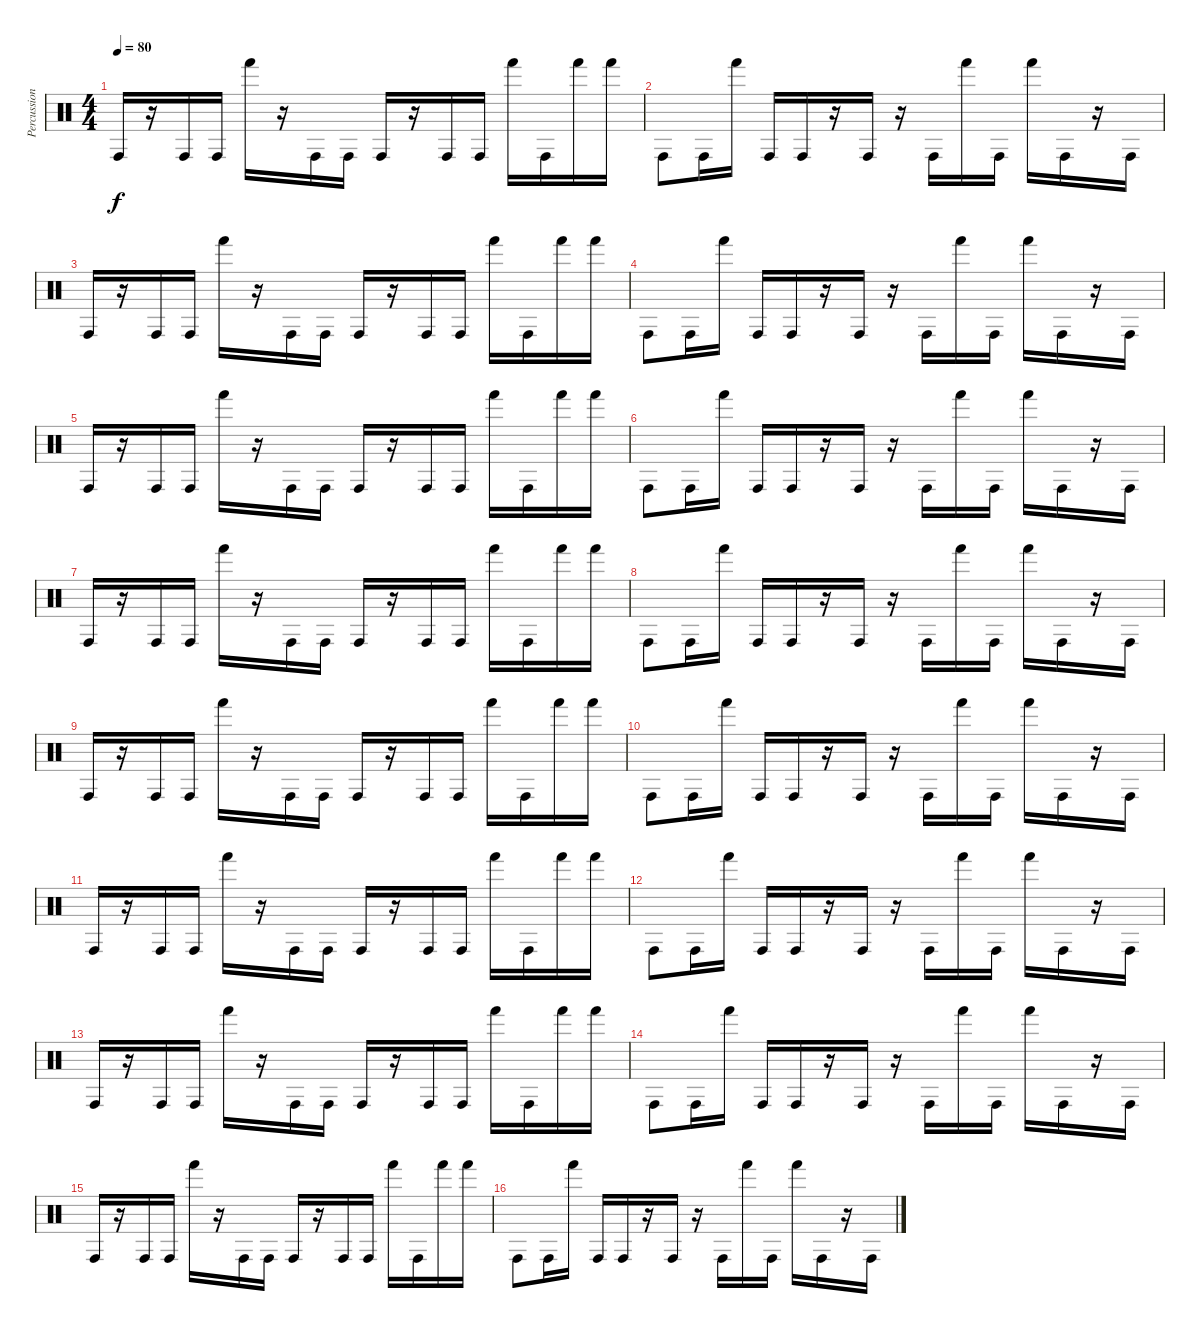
\track ("Percussion" "Percussion") {instrument percussion}
\staff {score}
\articulation defaults
\ts (4 4)
\tempo 80
\clef neutral
\ks c "Conga high (hit)".16{dy f}
r.16 "Conga high (hit)".16 "Conga high (hit)".16 "Hand (hit)".16 r.16 "Conga high (hit)".16 "Conga high (hit)".16 "Conga high (hit)".16 r.16 "Conga high (hit)".16 "Conga high (hit)".16 "Hand (hit)".16 "Conga high (hit)".16 "Hand (hit)".16 "Hand (hit)".16 |
"Conga high (hit)".8 "Conga high (hit)".16 "Hand (hit)".16 "Conga high (hit)".16 "Conga high (hit)".16 r.16 "Conga high (hit)".16 r.16 "Conga high (hit)".16 "Hand (hit)".16 "Conga high (hit)".16 "Hand (hit)".16 "Conga high (hit)".16 r.16 "Conga high (hit)".16 |
"Conga high (hit)".16 r.16 "Conga high (hit)".16 "Conga high (hit)".16 "Hand (hit)".16 r.16 "Conga high (hit)".16 "Conga high (hit)".16 "Conga high (hit)".16 r.16 "Conga high (hit)".16 "Conga high (hit)".16 "Hand (hit)".16 "Conga high (hit)".16 "Hand (hit)".16 "Hand (hit)".16 |
"Conga high (hit)".8 "Conga high (hit)".16 "Hand (hit)".16 "Conga high (hit)".16 "Conga high (hit)".16 r.16 "Conga high (hit)".16 r.16 "Conga high (hit)".16 "Hand (hit)".16 "Conga high (hit)".16 "Hand (hit)".16 "Conga high (hit)".16 r.16 "Conga high (hit)".16 |
"Conga high (hit)".16 r.16 "Conga high (hit)".16 "Conga high (hit)".16 "Hand (hit)".16 r.16 "Conga high (hit)".16 "Conga high (hit)".16 "Conga high (hit)".16 r.16 "Conga high (hit)".16 "Conga high (hit)".16 "Hand (hit)".16 "Conga high (hit)".16 "Hand (hit)".16 "Hand (hit)".16 |
"Conga high (hit)".8 "Conga high (hit)".16 "Hand (hit)".16 "Conga high (hit)".16 "Conga high (hit)".16 r.16 "Conga high (hit)".16 r.16 "Conga high (hit)".16 "Hand (hit)".16 "Conga high (hit)".16 "Hand (hit)".16 "Conga high (hit)".16 r.16 "Conga high (hit)".16 |
"Conga high (hit)".16 r.16 "Conga high (hit)".16 "Conga high (hit)".16 "Hand (hit)".16 r.16 "Conga high (hit)".16 "Conga high (hit)".16 "Conga high (hit)".16 r.16 "Conga high (hit)".16 "Conga high (hit)".16 "Hand (hit)".16 "Conga high (hit)".16 "Hand (hit)".16 "Hand (hit)".16 |
"Conga high (hit)".8 "Conga high (hit)".16 "Hand (hit)".16 "Conga high (hit)".16 "Conga high (hit)".16 r.16 "Conga high (hit)".16 r.16 "Conga high (hit)".16 "Hand (hit)".16 "Conga high (hit)".16 "Hand (hit)".16 "Conga high (hit)".16 r.16 "Conga high (hit)".16 |
"Conga high (hit)".16 r.16 "Conga high (hit)".16 "Conga high (hit)".16 "Hand (hit)".16 r.16 "Conga high (hit)".16 "Conga high (hit)".16 "Conga high (hit)".16 r.16 "Conga high (hit)".16 "Conga high (hit)".16 "Hand (hit)".16 "Conga high (hit)".16 "Hand (hit)".16 "Hand (hit)".16 |
"Conga high (hit)".8 "Conga high (hit)".16 "Hand (hit)".16 "Conga high (hit)".16 "Conga high (hit)".16 r.16 "Conga high (hit)".16 r.16 "Conga high (hit)".16 "Hand (hit)".16 "Conga high (hit)".16 "Hand (hit)".16 "Conga high (hit)".16 r.16 "Conga high (hit)".16 |
"Conga high (hit)".16 r.16 "Conga high (hit)".16 "Conga high (hit)".16 "Hand (hit)".16 r.16 "Conga high (hit)".16 "Conga high (hit)".16 "Conga high (hit)".16 r.16 "Conga high (hit)".16 "Conga high (hit)".16 "Hand (hit)".16 "Conga high (hit)".16 "Hand (hit)".16 "Hand (hit)".16 |
"Conga high (hit)".8 "Conga high (hit)".16 "Hand (hit)".16 "Conga high (hit)".16 "Conga high (hit)".16 r.16 "Conga high (hit)".16 r.16 "Conga high (hit)".16 "Hand (hit)".16 "Conga high (hit)".16 "Hand (hit)".16 "Conga high (hit)".16 r.16 "Conga high (hit)".16 |
"Conga high (hit)".16 r.16 "Conga high (hit)".16 "Conga high (hit)".16 "Hand (hit)".16 r.16 "Conga high (hit)".16 "Conga high (hit)".16 "Conga high (hit)".16 r.16 "Conga high (hit)".16 "Conga high (hit)".16 "Hand (hit)".16 "Conga high (hit)".16 "Hand (hit)".16 "Hand (hit)".16 |
"Conga high (hit)".8 "Conga high (hit)".16 "Hand (hit)".16 "Conga high (hit)".16 "Conga high (hit)".16 r.16 "Conga high (hit)".16 r.16 "Conga high (hit)".16 "Hand (hit)".16 "Conga high (hit)".16 "Hand (hit)".16 "Conga high (hit)".16 r.16 "Conga high (hit)".16 |
"Conga high (hit)".16 r.16 "Conga high (hit)".16 "Conga high (hit)".16 "Hand (hit)".16 r.16 "Conga high (hit)".16 "Conga high (hit)".16 "Conga high (hit)".16 r.16 "Conga high (hit)".16 "Conga high (hit)".16 "Hand (hit)".16 "Conga high (hit)".16 "Hand (hit)".16 "Hand (hit)".16 |
"Conga high (hit)".8 "Conga high (hit)".16 "Hand (hit)".16 "Conga high (hit)".16 "Conga high (hit)".16 r.16 "Conga high (hit)".16 r.16 "Conga high (hit)".16 "Hand (hit)".16 "Conga high (hit)".16 "Hand (hit)".16 "Conga high (hit)".16 r.16 "Conga high (hit)".16
